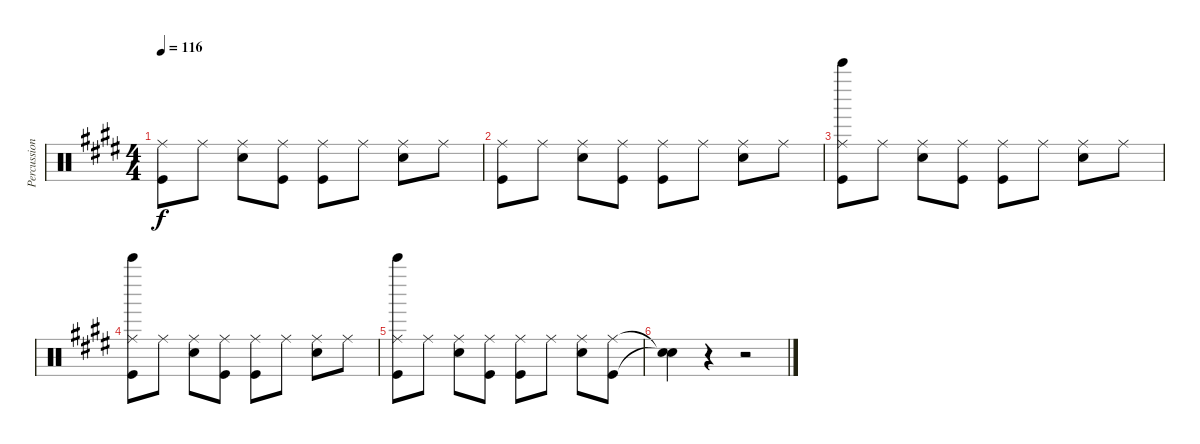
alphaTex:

\track ("Percussion" "Percussion") {instrument percussion}
\staff {score}
\articulation defaults
\ts (4 4)
\tempo 116
\clef neutral
\ks e
("Ride (middle)" "Kick (hit)").8{dy f} "Ride (middle)".8 ("Ride (middle)" "Snare (hit) 2").8 ("Ride (middle)" "Kick (hit)").8 ("Ride (middle)" "Kick (hit)").8 "Ride (middle)".8 ("Ride (middle)" "Snare (hit) 2").8 "Ride (middle)".8 |
("Ride (middle)" "Kick (hit)").8 "Ride (middle)".8 ("Ride (middle)" "Snare (hit) 2").8 ("Ride (middle)" "Kick (hit)").8 ("Ride (middle)" "Kick (hit)").8 "Ride (middle)".8 ("Ride (middle)" "Snare (hit) 2").8 "Ride (middle)".8 |
("Ride (middle)" "Bell Tree (hit)" "Kick (hit)").8 "Ride (middle)".8 ("Ride (middle)" "Snare (hit) 2").8 ("Ride (middle)" "Kick (hit)").8 ("Ride (middle)" "Kick (hit)").8 "Ride (middle)".8 ("Ride (middle)" "Snare (hit) 2").8 "Ride (middle)".8 |
("Ride (middle)" "Bell Tree (hit)" "Kick (hit)").8 "Ride (middle)".8 ("Ride (middle)" "Snare (hit) 2").8 ("Ride (middle)" "Kick (hit)").8 ("Ride (middle)" "Kick (hit)").8 "Ride (middle)".8 ("Ride (middle)" "Snare (hit) 2").8 "Ride (middle)".8 |
("Ride (middle)" "Bell Tree (hit)" "Kick (hit)").8 "Ride (middle)".8 ("Ride (middle)" "Snare (hit) 2").8 ("Ride (middle)" "Kick (hit)").8 ("Ride (middle)" "Kick (hit)").8 "Ride (middle)".8 ("Ride (middle)" "Snare (hit) 2").8 ("Ride (middle)" "Kick (hit)").8 |
("Snare (hit)"{t} "Snare (hit)"{t}).4 r.4 r.2
